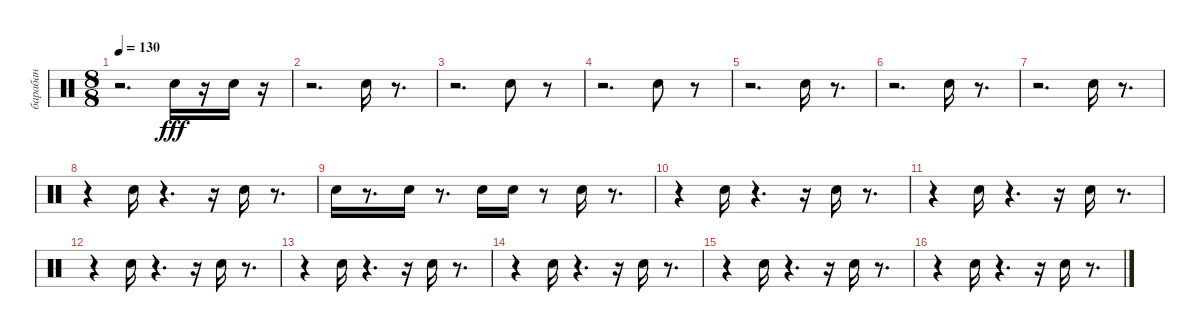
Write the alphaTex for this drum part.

\track ("барабан" "барабан") {instrument percussion}
\staff {score}
\articulation defaults
\ts (8 8)
\tempo 130
\clef neutral
\ks c
r.2{d dy fff} "Snare (hit) 2".16 r.16 "Snare (hit) 2".16 r.16 |
r.2{d} "Snare (hit) 2".16 r.8{d} |
r.2{d} "Snare (hit) 2".8 r.8 |
r.2{d} "Snare (hit) 2".8 r.8 |
r.2{d} "Snare (hit) 2".16 r.8{d} |
r.2{d} "Snare (hit) 2".16 r.8{d} |
r.2{d} "Snare (hit) 2".16 r.8{d} |
r.4 "Snare (hit) 2".16 r.4{d} r.16 "Snare (hit) 2".16 r.8{d} |
"Snare (hit) 2".16 r.8{d} "Snare (hit) 2".16 r.8{d} "Snare (hit) 2".16 "Snare (hit) 2".16 r.8 "Snare (hit) 2".16 r.8{d} |
r.4 "Snare (hit) 2".16 r.4{d} r.16 "Snare (hit) 2".16 r.8{d} |
r.4 "Snare (hit) 2".16 r.4{d} r.16 "Snare (hit) 2".16 r.8{d} |
r.4 "Snare (hit) 2".16 r.4{d} r.16 "Snare (hit) 2".16 r.8{d} |
r.4 "Snare (hit) 2".16 r.4{d} r.16 "Snare (hit) 2".16 r.8{d} |
r.4 "Snare (hit) 2".16 r.4{d} r.16 "Snare (hit) 2".16 r.8{d} |
r.4 "Snare (hit) 2".16 r.4{d} r.16 "Snare (hit) 2".16 r.8{d} |
r.4 "Snare (hit) 2".16 r.4{d} r.16 "Snare (hit) 2".16 r.8{d}
